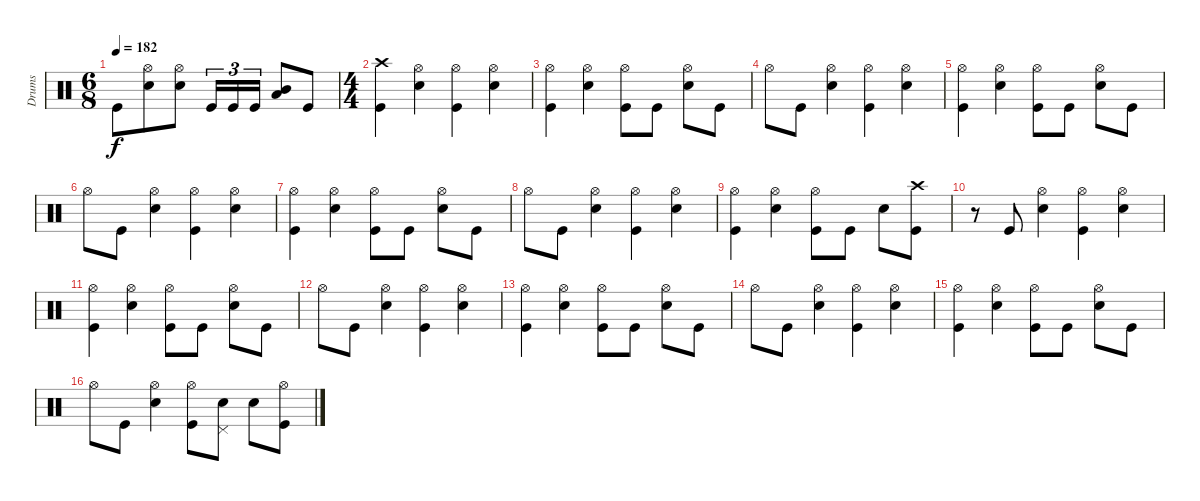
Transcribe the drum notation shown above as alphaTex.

\track ("Drums" "Drums") {instrument percussion}
\staff {score}
\articulation defaults
\ts (6 8)
\tempo 182
\clef neutral
\ks c "Kick (hit)".8{dy f}
("Hi-Hat (open)" "Electric Snare (hit)").8 ("Hi-Hat (open)" "Electric Snare (hit)").8 "Kick (hit)".16{tu (3 2)} "Kick (hit)".16{tu (3 2)} "Kick (hit)".16{tu (3 2)} ("Low Tom (hit)" "Mid Tom (hit)").8 "Kick (hit)".8 |
\ts (4 4)
("Crash high (hit)" "Kick (hit)").4 ("Hi-Hat (open)" "Electric Snare (hit)").4 ("Hi-Hat (open)" "Kick (hit)").4 ("Hi-Hat (open)" "Electric Snare (hit)").4 |
("Hi-Hat (open)" "Kick (hit)").4 ("Hi-Hat (open)" "Electric Snare (hit)").4 ("Hi-Hat (open)" "Kick (hit)").8 "Kick (hit)".8 ("Hi-Hat (open)" "Electric Snare (hit)").8 "Kick (hit)".8 |
"Hi-Hat (open)".8 "Kick (hit)".8 ("Hi-Hat (open)" "Electric Snare (hit)").4 ("Kick (hit)" "Hi-Hat (open)").4 ("Hi-Hat (open)" "Electric Snare (hit)").4 |
("Hi-Hat (open)" "Kick (hit)").4 ("Hi-Hat (open)" "Electric Snare (hit)").4 ("Hi-Hat (open)" "Kick (hit)").8 "Kick (hit)".8 ("Hi-Hat (open)" "Electric Snare (hit)").8 "Kick (hit)".8 |
"Hi-Hat (open)".8 "Kick (hit)".8 ("Hi-Hat (open)" "Electric Snare (hit)").4 ("Kick (hit)" "Hi-Hat (open)").4 ("Hi-Hat (open)" "Electric Snare (hit)").4 |
("Hi-Hat (open)" "Kick (hit)").4 ("Hi-Hat (open)" "Electric Snare (hit)").4 ("Hi-Hat (open)" "Kick (hit)").8 "Kick (hit)".8 ("Hi-Hat (open)" "Electric Snare (hit)").8 "Kick (hit)".8 |
"Hi-Hat (open)".8 "Kick (hit)".8 ("Hi-Hat (open)" "Electric Snare (hit)").4 ("Kick (hit)" "Hi-Hat (open)").4 ("Hi-Hat (open)" "Electric Snare (hit)").4 |
("Hi-Hat (open)" "Kick (hit)").4 ("Hi-Hat (open)" "Electric Snare (hit)").4 ("Hi-Hat (open)" "Kick (hit)").8 "Kick (hit)".8 "Electric Snare (hit)".8 ("Crash high (hit)" "Kick (hit)").8 |
r.8 "Kick (hit)".8 ("Hi-Hat (open)" "Electric Snare (hit)").4 ("Kick (hit)" "Hi-Hat (open)").4 ("Hi-Hat (open)" "Electric Snare (hit)").4 |
("Hi-Hat (open)" "Kick (hit)").4 ("Hi-Hat (open)" "Electric Snare (hit)").4 ("Hi-Hat (open)" "Kick (hit)").8 "Kick (hit)".8 ("Hi-Hat (open)" "Electric Snare (hit)").8 "Kick (hit)".8 |
"Hi-Hat (open)".8 "Kick (hit)".8 ("Hi-Hat (open)" "Electric Snare (hit)").4 ("Kick (hit)" "Hi-Hat (open)").4 ("Hi-Hat (open)" "Electric Snare (hit)").4 |
("Hi-Hat (open)" "Kick (hit)").4 ("Hi-Hat (open)" "Electric Snare (hit)").4 ("Hi-Hat (open)" "Kick (hit)").8 "Kick (hit)".8 ("Hi-Hat (open)" "Electric Snare (hit)").8 "Kick (hit)".8 |
"Hi-Hat (open)".8 "Kick (hit)".8 ("Hi-Hat (open)" "Electric Snare (hit)").4 ("Kick (hit)" "Hi-Hat (open)").4 ("Hi-Hat (open)" "Electric Snare (hit)").4 |
("Hi-Hat (open)" "Kick (hit)").4 ("Hi-Hat (open)" "Electric Snare (hit)").4 ("Hi-Hat (open)" "Kick (hit)").8 "Kick (hit)".8 ("Hi-Hat (open)" "Electric Snare (hit)").8 "Kick (hit)".8 |
"Hi-Hat (open)".8 "Kick (hit)".8 ("Hi-Hat (open)" "Electric Snare (hit)").4 ("Hi-Hat (open)" "Kick (hit)").8 ("Pedal Hi-Hat (hit)" "Electric Snare (hit)").8 "Electric Snare (hit)".8 ("Hi-Hat (open)" "Kick (hit)").8
